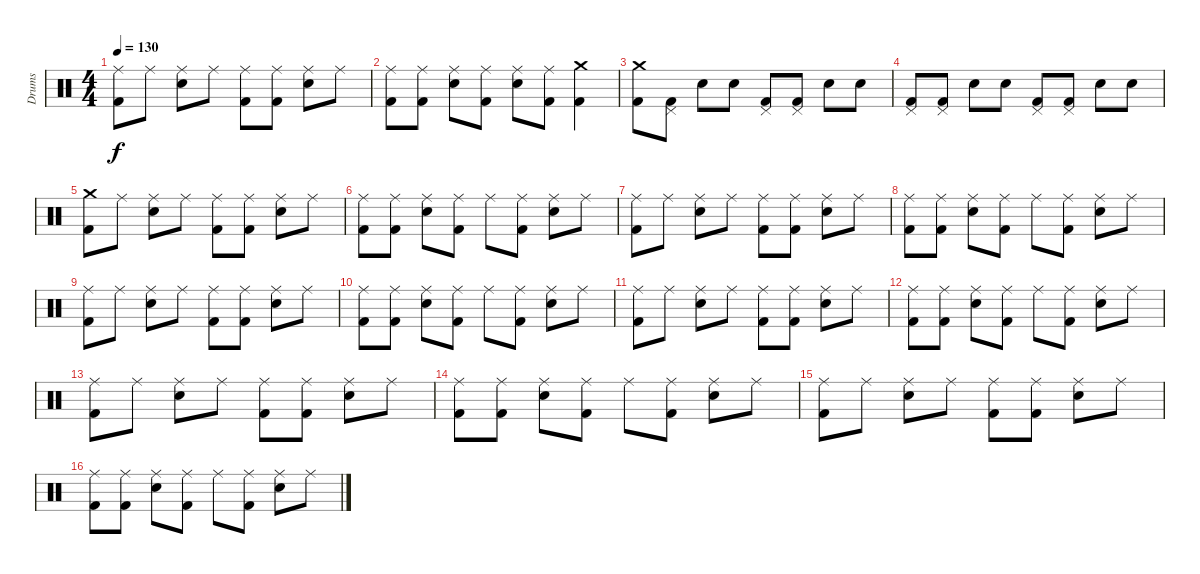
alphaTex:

\track ("Drums" "Drums") {instrument percussion}
\staff {score}
\articulation defaults
\ts (4 4)
\tempo 130
\clef neutral
\ks c
("Ride (middle)" "Kick (hit) 2").8{dy f} "Ride (middle)".8 ("Ride (middle)" "Snare (hit) 2").8 "Ride (middle)".8 ("Ride (middle)" "Kick (hit) 2").8 ("Ride (middle)" "Kick (hit) 2").8 ("Ride (middle)" "Snare (hit) 2").8 "Ride (middle)".8 |
("Ride (middle)" "Kick (hit) 2").8 ("Ride (middle)" "Kick (hit) 2").8 ("Ride (middle)" "Snare (hit) 2").8 ("Ride (middle)" "Kick (hit) 2").8 ("Ride (middle)" "Snare (hit) 2").8 ("Ride (middle)" "Kick (hit) 2").8 ("Crash medium (hit)" "Kick (hit) 2").4 |
("Crash medium (hit)" "Kick (hit) 2").8 ("Pedal Hi-Hat (hit)" "Kick (hit) 2").8 "Snare (hit) 2".8 "Snare (hit)".8 ("Pedal Hi-Hat (hit)" "Kick (hit) 2").8 ("Pedal Hi-Hat (hit)" "Kick (hit) 2").8 "Snare (hit) 2".8 "Snare (hit)".8 |
("Pedal Hi-Hat (hit)" "Kick (hit) 2").8 ("Pedal Hi-Hat (hit)" "Kick (hit) 2").8 "Snare (hit) 2".8 "Snare (hit)".8 ("Pedal Hi-Hat (hit)" "Kick (hit) 2").8 ("Pedal Hi-Hat (hit)" "Kick (hit) 2").8 "Snare (hit) 2".8 "Snare (hit)".8 |
("Crash medium (hit)" "Kick (hit) 2").8 "Ride (middle)".8 ("Ride (middle)" "Snare (hit) 2").8 "Ride (middle)".8 ("Ride (middle)" "Kick (hit) 2").8 ("Ride (middle)" "Kick (hit) 2").8 ("Ride (middle)" "Snare (hit) 2").8 "Ride (middle)".8 |
("Ride (middle)" "Kick (hit) 2").8 ("Ride (middle)" "Kick (hit) 2").8 ("Ride (middle)" "Snare (hit) 2").8 ("Ride (middle)" "Kick (hit) 2").8 "Ride (middle)".8 ("Ride (middle)" "Kick (hit) 2").8 ("Ride (middle)" "Snare (hit) 2").8 "Ride (middle)".8 |
("Ride (middle)" "Kick (hit) 2").8 "Ride (middle)".8 ("Ride (middle)" "Snare (hit) 2").8 "Ride (middle)".8 ("Ride (middle)" "Kick (hit) 2").8 ("Ride (middle)" "Kick (hit) 2").8 ("Ride (middle)" "Snare (hit) 2").8 "Ride (middle)".8 |
("Ride (middle)" "Kick (hit) 2").8 ("Ride (middle)" "Kick (hit) 2").8 ("Ride (middle)" "Snare (hit) 2").8 ("Ride (middle)" "Kick (hit) 2").8 "Ride (middle)".8 ("Ride (middle)" "Kick (hit) 2").8 ("Ride (middle)" "Snare (hit) 2").8 "Ride (middle)".8 |
("Ride (middle)" "Kick (hit) 2").8 "Ride (middle)".8 ("Ride (middle)" "Snare (hit) 2").8 "Ride (middle)".8 ("Ride (middle)" "Kick (hit) 2").8 ("Ride (middle)" "Kick (hit) 2").8 ("Ride (middle)" "Snare (hit) 2").8 "Ride (middle)".8 |
("Ride (middle)" "Kick (hit) 2").8 ("Ride (middle)" "Kick (hit) 2").8 ("Ride (middle)" "Snare (hit) 2").8 ("Ride (middle)" "Kick (hit) 2").8 "Ride (middle)".8 ("Ride (middle)" "Kick (hit) 2").8 ("Ride (middle)" "Snare (hit) 2").8 "Ride (middle)".8 |
("Ride (middle)" "Kick (hit) 2").8 "Ride (middle)".8 ("Ride (middle)" "Snare (hit) 2").8 "Ride (middle)".8 ("Ride (middle)" "Kick (hit) 2").8 ("Ride (middle)" "Kick (hit) 2").8 ("Ride (middle)" "Snare (hit) 2").8 "Ride (middle)".8 |
("Ride (middle)" "Kick (hit) 2").8 ("Ride (middle)" "Kick (hit) 2").8 ("Ride (middle)" "Snare (hit) 2").8 ("Ride (middle)" "Kick (hit) 2").8 "Ride (middle)".8 ("Ride (middle)" "Kick (hit) 2").8 ("Ride (middle)" "Snare (hit) 2").8 "Ride (middle)".8 |
("Ride (middle)" "Kick (hit) 2").8 "Ride (middle)".8 ("Ride (middle)" "Snare (hit) 2").8 "Ride (middle)".8 ("Ride (middle)" "Kick (hit) 2").8 ("Ride (middle)" "Kick (hit) 2").8 ("Ride (middle)" "Snare (hit) 2").8 "Ride (middle)".8 |
("Ride (middle)" "Kick (hit) 2").8 ("Ride (middle)" "Kick (hit) 2").8 ("Ride (middle)" "Snare (hit) 2").8 ("Ride (middle)" "Kick (hit) 2").8 "Ride (middle)".8 ("Ride (middle)" "Kick (hit) 2").8 ("Ride (middle)" "Snare (hit) 2").8 "Ride (middle)".8 |
("Ride (middle)" "Kick (hit) 2").8 "Ride (middle)".8 ("Ride (middle)" "Snare (hit) 2").8 "Ride (middle)".8 ("Ride (middle)" "Kick (hit) 2").8 ("Ride (middle)" "Kick (hit) 2").8 ("Ride (middle)" "Snare (hit) 2").8 "Ride (middle)".8 |
("Ride (middle)" "Kick (hit) 2").8 ("Ride (middle)" "Kick (hit) 2").8 ("Ride (middle)" "Snare (hit) 2").8 ("Ride (middle)" "Kick (hit) 2").8 "Ride (middle)".8 ("Ride (middle)" "Kick (hit) 2").8 ("Ride (middle)" "Snare (hit) 2").8 "Ride (middle)".8
